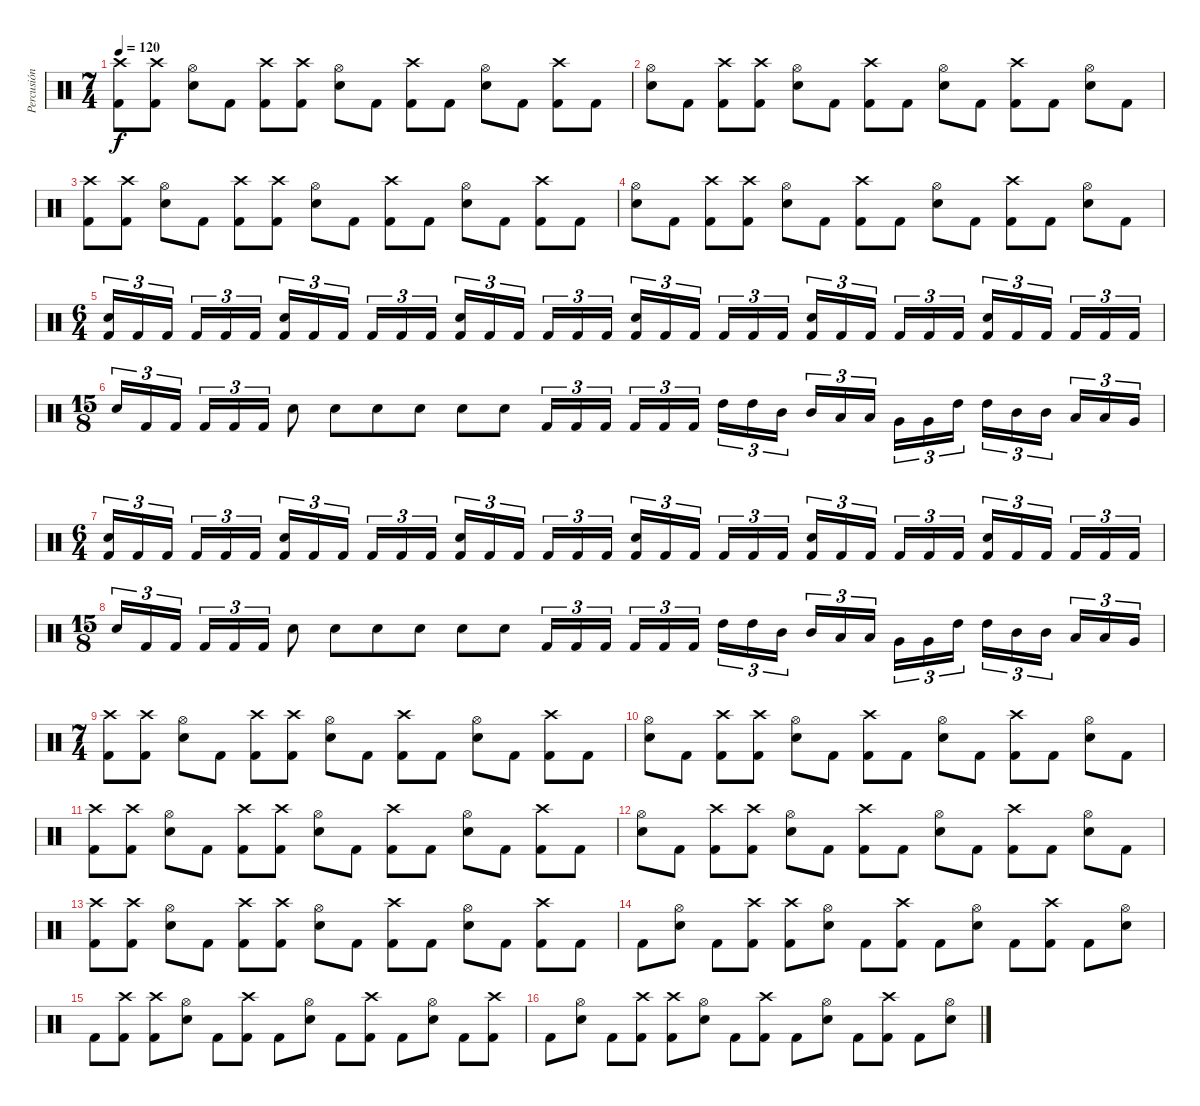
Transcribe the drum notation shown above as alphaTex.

\track ("Percusión" "Percusión") {instrument percussion}
\staff {score}
\articulation defaults
\ts (7 4)
\tempo 120
\clef neutral
\ks c
("Crash high (hit)" "Kick (hit) 2").8{dy f} ("Crash high (hit)" "Kick (hit) 2").8 ("Hi-Hat (open)" "Electric Snare (hit)").8 "Kick (hit) 2".8 ("Crash high (hit)" "Kick (hit) 2").8 ("Crash high (hit)" "Kick (hit) 2").8 ("Hi-Hat (open)" "Electric Snare (hit)").8 "Kick (hit) 2".8 ("Crash high (hit)" "Kick (hit) 2").8 "Kick (hit) 2".8 ("Hi-Hat (open)" "Electric Snare (hit)").8 "Kick (hit) 2".8 ("Crash high (hit)" "Kick (hit) 2").8 "Kick (hit) 2".8 |
("Hi-Hat (open)" "Electric Snare (hit)").8 "Kick (hit) 2".8 ("Crash high (hit)" "Kick (hit) 2").8 ("Crash high (hit)" "Kick (hit) 2").8 ("Hi-Hat (open)" "Electric Snare (hit)").8 "Kick (hit) 2".8 ("Crash high (hit)" "Kick (hit) 2").8 "Kick (hit) 2".8 ("Hi-Hat (open)" "Electric Snare (hit)").8 "Kick (hit) 2".8 ("Crash high (hit)" "Kick (hit) 2").8 "Kick (hit) 2".8 ("Hi-Hat (open)" "Electric Snare (hit)").8 "Kick (hit) 2".8 |
("Crash high (hit)" "Kick (hit) 2").8 ("Crash high (hit)" "Kick (hit) 2").8 ("Hi-Hat (open)" "Electric Snare (hit)").8 "Kick (hit) 2".8 ("Crash high (hit)" "Kick (hit) 2").8 ("Crash high (hit)" "Kick (hit) 2").8 ("Hi-Hat (open)" "Electric Snare (hit)").8 "Kick (hit) 2".8 ("Crash high (hit)" "Kick (hit) 2").8 "Kick (hit) 2".8 ("Hi-Hat (open)" "Electric Snare (hit)").8 "Kick (hit) 2".8 ("Crash high (hit)" "Kick (hit) 2").8 "Kick (hit) 2".8 |
("Hi-Hat (open)" "Electric Snare (hit)").8 "Kick (hit) 2".8 ("Crash high (hit)" "Kick (hit) 2").8 ("Crash high (hit)" "Kick (hit) 2").8 ("Hi-Hat (open)" "Electric Snare (hit)").8 "Kick (hit) 2".8 ("Crash high (hit)" "Kick (hit) 2").8 "Kick (hit) 2".8 ("Hi-Hat (open)" "Electric Snare (hit)").8 "Kick (hit) 2".8 ("Crash high (hit)" "Kick (hit) 2").8 "Kick (hit) 2".8 ("Hi-Hat (open)" "Electric Snare (hit)").8 "Kick (hit) 2".8 |
\ts (6 4)
("Electric Snare (hit)" "Kick (hit) 2").16{tu (3 2)} "Kick (hit) 2".16{tu (3 2)} "Kick (hit) 2".16{tu (3 2)} "Kick (hit) 2".16{tu (3 2)} "Kick (hit) 2".16{tu (3 2)} "Kick (hit) 2".16{tu (3 2)} ("Electric Snare (hit)" "Kick (hit) 2").16{tu (3 2)} "Kick (hit) 2".16{tu (3 2)} "Kick (hit) 2".16{tu (3 2)} "Kick (hit) 2".16{tu (3 2)} "Kick (hit) 2".16{tu (3 2)} "Kick (hit) 2".16{tu (3 2)} ("Electric Snare (hit)" "Kick (hit) 2").16{tu (3 2)} "Kick (hit) 2".16{tu (3 2)} "Kick (hit) 2".16{tu (3 2)} "Kick (hit) 2".16{tu (3 2)} "Kick (hit) 2".16{tu (3 2)} "Kick (hit) 2".16{tu (3 2)} ("Electric Snare (hit)" "Kick (hit) 2").16{tu (3 2)} "Kick (hit) 2".16{tu (3 2)} "Kick (hit) 2".16{tu (3 2)} "Kick (hit) 2".16{tu (3 2)} "Kick (hit) 2".16{tu (3 2)} "Kick (hit) 2".16{tu (3 2)} ("Electric Snare (hit)" "Kick (hit) 2").16{tu (3 2)} "Kick (hit) 2".16{tu (3 2)} "Kick (hit) 2".16{tu (3 2)} "Kick (hit) 2".16{tu (3 2)} "Kick (hit) 2".16{tu (3 2)} "Kick (hit) 2".16{tu (3 2)} ("Electric Snare (hit)" "Kick (hit) 2").16{tu (3 2)} "Kick (hit) 2".16{tu (3 2)} "Kick (hit) 2".16{tu (3 2)} "Kick (hit) 2".16{tu (3 2)} "Kick (hit) 2".16{tu (3 2)} "Kick (hit) 2".16{tu (3 2)} |
\ts (15 8)
"Electric Snare (hit)".16{tu (3 2)} "Kick (hit) 2".16{tu (3 2)} "Kick (hit) 2".16{tu (3 2)} "Kick (hit) 2".16{tu (3 2)} "Kick (hit) 2".16{tu (3 2)} "Kick (hit) 2".16{tu (3 2)} "Electric Snare (hit)".8 "Electric Snare (hit)".8 "Electric Snare (hit)".8 "Electric Snare (hit)".8 "Electric Snare (hit)".8 "Electric Snare (hit)".8 "Kick (hit) 2".16{tu (3 2)} "Kick (hit) 2".16{tu (3 2)} "Kick (hit) 2".16{tu (3 2)} "Kick (hit) 2".16{tu (3 2)} "Kick (hit) 2".16{tu (3 2)} "Kick (hit) 2".16{tu (3 2)} "High Tom (hit)".16{tu (3 2)} "High Tom (hit)".16{tu (3 2)} "Mid Tom (hit)".16{tu (3 2)} "Mid Tom (hit)".16{tu (3 2)} "Low Tom (hit)".16{tu (3 2)} "Low Tom (hit)".16{tu (3 2)} "Very Low Tom (hit)".16{tu (3 2)} "Very Low Tom (hit)".16{tu (3 2)} "High Tom (hit)".16{tu (3 2)} "High Tom (hit)".16{tu (3 2)} "Mid Tom (hit)".16{tu (3 2)} "Mid Tom (hit)".16{tu (3 2)} "Low Tom (hit)".16{tu (3 2)} "Low Tom (hit)".16{tu (3 2)} "Very Low Tom (hit)".16{tu (3 2)} |
\ts (6 4)
("Electric Snare (hit)" "Kick (hit) 2").16{tu (3 2)} "Kick (hit) 2".16{tu (3 2)} "Kick (hit) 2".16{tu (3 2)} "Kick (hit) 2".16{tu (3 2)} "Kick (hit) 2".16{tu (3 2)} "Kick (hit) 2".16{tu (3 2)} ("Electric Snare (hit)" "Kick (hit) 2").16{tu (3 2)} "Kick (hit) 2".16{tu (3 2)} "Kick (hit) 2".16{tu (3 2)} "Kick (hit) 2".16{tu (3 2)} "Kick (hit) 2".16{tu (3 2)} "Kick (hit) 2".16{tu (3 2)} ("Electric Snare (hit)" "Kick (hit) 2").16{tu (3 2)} "Kick (hit) 2".16{tu (3 2)} "Kick (hit) 2".16{tu (3 2)} "Kick (hit) 2".16{tu (3 2)} "Kick (hit) 2".16{tu (3 2)} "Kick (hit) 2".16{tu (3 2)} ("Electric Snare (hit)" "Kick (hit) 2").16{tu (3 2)} "Kick (hit) 2".16{tu (3 2)} "Kick (hit) 2".16{tu (3 2)} "Kick (hit) 2".16{tu (3 2)} "Kick (hit) 2".16{tu (3 2)} "Kick (hit) 2".16{tu (3 2)} ("Electric Snare (hit)" "Kick (hit) 2").16{tu (3 2)} "Kick (hit) 2".16{tu (3 2)} "Kick (hit) 2".16{tu (3 2)} "Kick (hit) 2".16{tu (3 2)} "Kick (hit) 2".16{tu (3 2)} "Kick (hit) 2".16{tu (3 2)} ("Electric Snare (hit)" "Kick (hit) 2").16{tu (3 2)} "Kick (hit) 2".16{tu (3 2)} "Kick (hit) 2".16{tu (3 2)} "Kick (hit) 2".16{tu (3 2)} "Kick (hit) 2".16{tu (3 2)} "Kick (hit) 2".16{tu (3 2)} |
\ts (15 8)
"Electric Snare (hit)".16{tu (3 2)} "Kick (hit) 2".16{tu (3 2)} "Kick (hit) 2".16{tu (3 2)} "Kick (hit) 2".16{tu (3 2)} "Kick (hit) 2".16{tu (3 2)} "Kick (hit) 2".16{tu (3 2)} "Electric Snare (hit)".8 "Electric Snare (hit)".8 "Electric Snare (hit)".8 "Electric Snare (hit)".8 "Electric Snare (hit)".8 "Electric Snare (hit)".8 "Kick (hit) 2".16{tu (3 2)} "Kick (hit) 2".16{tu (3 2)} "Kick (hit) 2".16{tu (3 2)} "Kick (hit) 2".16{tu (3 2)} "Kick (hit) 2".16{tu (3 2)} "Kick (hit) 2".16{tu (3 2)} "High Tom (hit)".16{tu (3 2)} "High Tom (hit)".16{tu (3 2)} "Mid Tom (hit)".16{tu (3 2)} "Mid Tom (hit)".16{tu (3 2)} "Low Tom (hit)".16{tu (3 2)} "Low Tom (hit)".16{tu (3 2)} "Very Low Tom (hit)".16{tu (3 2)} "Very Low Tom (hit)".16{tu (3 2)} "High Tom (hit)".16{tu (3 2)} "High Tom (hit)".16{tu (3 2)} "Mid Tom (hit)".16{tu (3 2)} "Mid Tom (hit)".16{tu (3 2)} "Low Tom (hit)".16{tu (3 2)} "Low Tom (hit)".16{tu (3 2)} "Very Low Tom (hit)".16{tu (3 2)} |
\ts (7 4)
("Crash high (hit)" "Kick (hit) 2").8 ("Crash high (hit)" "Kick (hit) 2").8 ("Hi-Hat (open)" "Electric Snare (hit)").8 "Kick (hit) 2".8 ("Crash high (hit)" "Kick (hit) 2").8 ("Crash high (hit)" "Kick (hit) 2").8 ("Hi-Hat (open)" "Electric Snare (hit)").8 "Kick (hit) 2".8 ("Crash high (hit)" "Kick (hit) 2").8 "Kick (hit) 2".8 ("Hi-Hat (open)" "Electric Snare (hit)").8 "Kick (hit) 2".8 ("Crash high (hit)" "Kick (hit) 2").8 "Kick (hit) 2".8 |
("Hi-Hat (open)" "Electric Snare (hit)").8 "Kick (hit) 2".8 ("Crash high (hit)" "Kick (hit) 2").8 ("Crash high (hit)" "Kick (hit) 2").8 ("Hi-Hat (open)" "Electric Snare (hit)").8 "Kick (hit) 2".8 ("Crash high (hit)" "Kick (hit) 2").8 "Kick (hit) 2".8 ("Hi-Hat (open)" "Electric Snare (hit)").8 "Kick (hit) 2".8 ("Crash high (hit)" "Kick (hit) 2").8 "Kick (hit) 2".8 ("Hi-Hat (open)" "Electric Snare (hit)").8 "Kick (hit) 2".8 |
("Crash high (hit)" "Kick (hit) 2").8 ("Crash high (hit)" "Kick (hit) 2").8 ("Hi-Hat (open)" "Electric Snare (hit)").8 "Kick (hit) 2".8 ("Crash high (hit)" "Kick (hit) 2").8 ("Crash high (hit)" "Kick (hit) 2").8 ("Hi-Hat (open)" "Electric Snare (hit)").8 "Kick (hit) 2".8 ("Crash high (hit)" "Kick (hit) 2").8 "Kick (hit) 2".8 ("Hi-Hat (open)" "Electric Snare (hit)").8 "Kick (hit) 2".8 ("Crash high (hit)" "Kick (hit) 2").8 "Kick (hit) 2".8 |
("Hi-Hat (open)" "Electric Snare (hit)").8 "Kick (hit) 2".8 ("Crash high (hit)" "Kick (hit) 2").8 ("Crash high (hit)" "Kick (hit) 2").8 ("Hi-Hat (open)" "Electric Snare (hit)").8 "Kick (hit) 2".8 ("Crash high (hit)" "Kick (hit) 2").8 "Kick (hit) 2".8 ("Hi-Hat (open)" "Electric Snare (hit)").8 "Kick (hit) 2".8 ("Crash high (hit)" "Kick (hit) 2").8 "Kick (hit) 2".8 ("Hi-Hat (open)" "Electric Snare (hit)").8 "Kick (hit) 2".8 |
("Crash high (hit)" "Kick (hit) 2").8 ("Crash high (hit)" "Kick (hit) 2").8 ("Hi-Hat (open)" "Electric Snare (hit)").8 "Kick (hit) 2".8 ("Crash high (hit)" "Kick (hit) 2").8 ("Crash high (hit)" "Kick (hit) 2").8 ("Hi-Hat (open)" "Electric Snare (hit)").8 "Kick (hit) 2".8 ("Crash high (hit)" "Kick (hit) 2").8 "Kick (hit) 2".8 ("Hi-Hat (open)" "Electric Snare (hit)").8 "Kick (hit) 2".8 ("Crash high (hit)" "Kick (hit) 2").8 "Kick (hit) 2".8 |
"Kick (hit) 2".8 ("Hi-Hat (open)" "Electric Snare (hit)").8 "Kick (hit) 2".8 ("Crash high (hit)" "Kick (hit) 2").8 ("Crash high (hit)" "Kick (hit) 2").8 ("Hi-Hat (open)" "Electric Snare (hit)").8 "Kick (hit) 2".8 ("Crash high (hit)" "Kick (hit) 2").8 "Kick (hit) 2".8 ("Hi-Hat (open)" "Electric Snare (hit)").8 "Kick (hit) 2".8 ("Crash high (hit)" "Kick (hit) 2").8 "Kick (hit) 2".8 ("Hi-Hat (open)" "Electric Snare (hit)").8 |
"Kick (hit) 2".8 ("Crash high (hit)" "Kick (hit) 2").8 ("Crash high (hit)" "Kick (hit) 2").8 ("Hi-Hat (open)" "Electric Snare (hit)").8 "Kick (hit) 2".8 ("Crash high (hit)" "Kick (hit) 2").8 "Kick (hit) 2".8 ("Hi-Hat (open)" "Electric Snare (hit)").8 "Kick (hit) 2".8 ("Crash high (hit)" "Kick (hit) 2").8 "Kick (hit) 2".8 ("Hi-Hat (open)" "Electric Snare (hit)").8 "Kick (hit) 2".8 ("Crash high (hit)" "Kick (hit) 2").8 |
"Kick (hit) 2".8 ("Hi-Hat (open)" "Electric Snare (hit)").8 "Kick (hit) 2".8 ("Crash high (hit)" "Kick (hit) 2").8 ("Crash high (hit)" "Kick (hit) 2").8 ("Hi-Hat (open)" "Electric Snare (hit)").8 "Kick (hit) 2".8 ("Crash high (hit)" "Kick (hit) 2").8 "Kick (hit) 2".8 ("Hi-Hat (open)" "Electric Snare (hit)").8 "Kick (hit) 2".8 ("Crash high (hit)" "Kick (hit) 2").8 "Kick (hit) 2".8 ("Hi-Hat (open)" "Electric Snare (hit)").8
